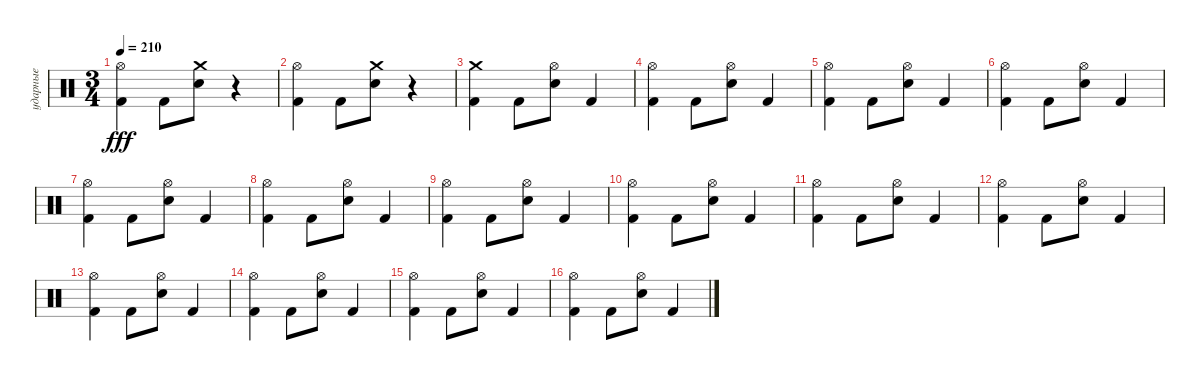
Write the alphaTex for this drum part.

\track ("ударные" "ударные") {instrument percussion}
\staff {score}
\articulation defaults
\ts (3 4)
\tempo 210
\clef neutral
\ks c
("Hi-Hat (open)" "Kick (hit) 2").4{dy fff} "Kick (hit) 2".8 ("Crash medium (hit)" "Snare (hit) 2").8 r.4 |
("Hi-Hat (open)" "Kick (hit) 2").4 "Kick (hit) 2".8 ("Crash medium (hit)" "Snare (hit) 2").8 r.4 |
("Crash medium (hit)" "Kick (hit) 2").4 "Kick (hit) 2".8 ("Hi-Hat (open)" "Snare (hit) 2").8 "Kick (hit) 2".4 |
("Hi-Hat (open)" "Kick (hit) 2").4 "Kick (hit) 2".8 ("Hi-Hat (open)" "Snare (hit) 2").8 "Kick (hit) 2".4 |
("Hi-Hat (open)" "Kick (hit) 2").4 "Kick (hit) 2".8 ("Hi-Hat (open)" "Snare (hit) 2").8 "Kick (hit) 2".4 |
("Hi-Hat (open)" "Kick (hit) 2").4 "Kick (hit) 2".8 ("Hi-Hat (open)" "Snare (hit) 2").8 "Kick (hit) 2".4 |
("Hi-Hat (open)" "Kick (hit) 2").4 "Kick (hit) 2".8 ("Hi-Hat (open)" "Snare (hit) 2").8 "Kick (hit) 2".4 |
("Hi-Hat (open)" "Kick (hit) 2").4 "Kick (hit) 2".8 ("Hi-Hat (open)" "Snare (hit) 2").8 "Kick (hit) 2".4 |
("Hi-Hat (open)" "Kick (hit) 2").4 "Kick (hit) 2".8 ("Hi-Hat (open)" "Snare (hit) 2").8 "Kick (hit) 2".4 |
("Hi-Hat (open)" "Kick (hit) 2").4 "Kick (hit) 2".8 ("Hi-Hat (open)" "Snare (hit) 2").8 "Kick (hit) 2".4 |
("Hi-Hat (open)" "Kick (hit) 2").4 "Kick (hit) 2".8 ("Hi-Hat (open)" "Snare (hit) 2").8 "Kick (hit) 2".4 |
("Hi-Hat (open)" "Kick (hit) 2").4 "Kick (hit) 2".8 ("Hi-Hat (open)" "Snare (hit) 2").8 "Kick (hit) 2".4 |
("Hi-Hat (open)" "Kick (hit) 2").4 "Kick (hit) 2".8 ("Hi-Hat (open)" "Snare (hit) 2").8 "Kick (hit) 2".4 |
("Hi-Hat (open)" "Kick (hit) 2").4 "Kick (hit) 2".8 ("Hi-Hat (open)" "Snare (hit) 2").8 "Kick (hit) 2".4 |
("Hi-Hat (open)" "Kick (hit) 2").4 "Kick (hit) 2".8 ("Hi-Hat (open)" "Snare (hit) 2").8 "Kick (hit) 2".4 |
("Hi-Hat (open)" "Kick (hit) 2").4 "Kick (hit) 2".8 ("Hi-Hat (open)" "Snare (hit) 2").8 "Kick (hit) 2".4
